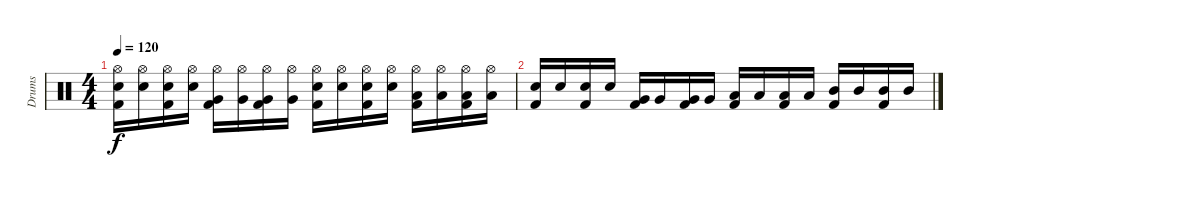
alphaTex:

\track ("Drums" "Drums") {instrument percussion}
\staff {score}
\articulation defaults
\ts (4 4)
\tempo 120
\clef neutral
\ks c
("Hi-Hat (open)" "Snare (hit) 2" "Kick (hit) 2").16{dy f} ("Hi-Hat (open)" "Snare (hit) 2").16 ("Hi-Hat (open)" "Snare (hit) 2" "Kick (hit) 2").16 ("Hi-Hat (open)" "Snare (hit) 2").16 ("Hi-Hat (open)" "Very Low Tom (hit)" "Kick (hit) 2").16 ("Hi-Hat (open)" "Very Low Tom (hit)").16 ("Hi-Hat (open)" "Very Low Tom (hit)" "Kick (hit) 2").16 ("Hi-Hat (open)" "Very Low Tom (hit)").16 ("Hi-Hat (open)" "Snare (hit) 2" "Kick (hit) 2").16 ("Hi-Hat (open)" "Snare (hit) 2").16 ("Hi-Hat (open)" "Snare (hit) 2" "Kick (hit) 2").16 ("Hi-Hat (open)" "Snare (hit) 2").16 ("Hi-Hat (open)" "Low Tom (hit)" "Kick (hit) 2").16 ("Hi-Hat (open)" "Low Tom (hit)").16 ("Hi-Hat (open)" "Low Tom (hit)" "Kick (hit) 2").16 ("Hi-Hat (open)" "Low Tom (hit)").16 |
("Snare (hit) 2" "Kick (hit) 2").16 "Snare (hit) 2".16 ("Snare (hit) 2" "Kick (hit) 2").16 "Snare (hit) 2".16 ("Very Low Tom (hit)" "Kick (hit) 2").16 "Very Low Tom (hit)".16 ("Very Low Tom (hit)" "Kick (hit) 2").16 "Very Low Tom (hit)".16 ("Low Tom (hit)" "Kick (hit) 2").16 "Low Tom (hit)".16 ("Low Tom (hit)" "Kick (hit) 2").16 "Low Tom (hit)".16 ("Mid Tom (hit)" "Kick (hit) 2").16 "Mid Tom (hit)".16 ("Mid Tom (hit)" "Kick (hit) 2").16 "Mid Tom (hit)".16
